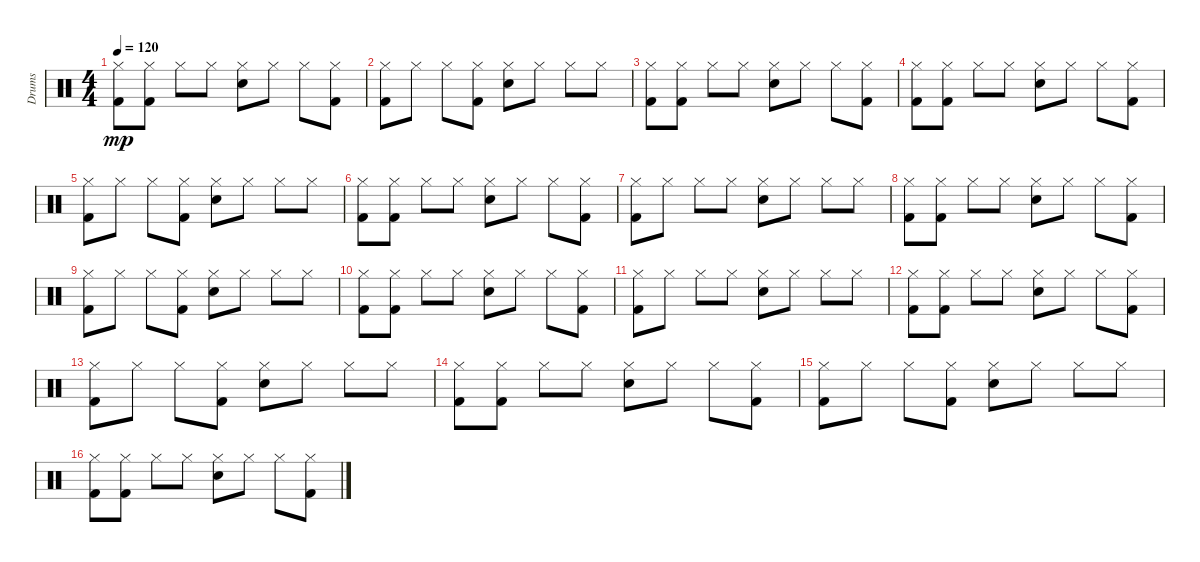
\track ("Drums" "Drums") {instrument percussion}
\staff {score}
\articulation defaults
\ts (4 4)
\tempo 120
\clef neutral
\ks c
("Hi-Hat (closed)" "Kick (hit) 2").8{dy mp} ("Hi-Hat (closed)" "Kick (hit) 2").8 "Hi-Hat (closed)".8 "Hi-Hat (closed)".8 ("Hi-Hat (closed)" "Snare (hit) 2").8 "Hi-Hat (closed)".8 "Hi-Hat (closed)".8 ("Hi-Hat (closed)" "Kick (hit) 2").8 |
("Hi-Hat (closed)" "Kick (hit) 2").8 "Hi-Hat (closed)".8 "Hi-Hat (closed)".8 ("Hi-Hat (closed)" "Kick (hit) 2").8 ("Hi-Hat (closed)" "Snare (hit) 2").8 "Hi-Hat (closed)".8 "Hi-Hat (closed)".8 "Hi-Hat (closed)".8 |
("Hi-Hat (closed)" "Kick (hit) 2").8 ("Hi-Hat (closed)" "Kick (hit) 2").8 "Hi-Hat (closed)".8 "Hi-Hat (closed)".8 ("Hi-Hat (closed)" "Snare (hit) 2").8 "Hi-Hat (closed)".8 "Hi-Hat (closed)".8 ("Hi-Hat (closed)" "Kick (hit) 2").8 |
("Hi-Hat (closed)" "Kick (hit) 2").8 ("Hi-Hat (closed)" "Kick (hit) 2").8 "Hi-Hat (closed)".8 "Hi-Hat (closed)".8 ("Hi-Hat (closed)" "Snare (hit) 2").8 "Hi-Hat (closed)".8 "Hi-Hat (closed)".8 ("Hi-Hat (closed)" "Kick (hit) 2").8 |
("Hi-Hat (closed)" "Kick (hit) 2").8 "Hi-Hat (closed)".8 "Hi-Hat (closed)".8 ("Hi-Hat (closed)" "Kick (hit) 2").8 ("Hi-Hat (closed)" "Snare (hit) 2").8 "Hi-Hat (closed)".8 "Hi-Hat (closed)".8 "Hi-Hat (closed)".8 |
("Hi-Hat (closed)" "Kick (hit) 2").8 ("Hi-Hat (closed)" "Kick (hit) 2").8 "Hi-Hat (closed)".8 "Hi-Hat (closed)".8 ("Hi-Hat (closed)" "Snare (hit) 2").8 "Hi-Hat (closed)".8 "Hi-Hat (closed)".8 ("Hi-Hat (closed)" "Kick (hit) 2").8 |
("Hi-Hat (closed)" "Kick (hit) 2").8 "Hi-Hat (closed)".8 "Hi-Hat (closed)".8 "Hi-Hat (closed)".8 ("Hi-Hat (closed)" "Snare (hit) 2").8 "Hi-Hat (closed)".8 "Hi-Hat (closed)".8 "Hi-Hat (closed)".8 |
("Hi-Hat (closed)" "Kick (hit) 2").8 ("Hi-Hat (closed)" "Kick (hit) 2").8 "Hi-Hat (closed)".8 "Hi-Hat (closed)".8 ("Hi-Hat (closed)" "Snare (hit) 2").8 "Hi-Hat (closed)".8 "Hi-Hat (closed)".8 ("Hi-Hat (closed)" "Kick (hit) 2").8 |
("Hi-Hat (closed)" "Kick (hit) 2").8 "Hi-Hat (closed)".8 "Hi-Hat (closed)".8 ("Hi-Hat (closed)" "Kick (hit) 2").8 ("Hi-Hat (closed)" "Snare (hit) 2").8 "Hi-Hat (closed)".8 "Hi-Hat (closed)".8 "Hi-Hat (closed)".8 |
("Hi-Hat (closed)" "Kick (hit) 2").8 ("Hi-Hat (closed)" "Kick (hit) 2").8 "Hi-Hat (closed)".8 "Hi-Hat (closed)".8 ("Hi-Hat (closed)" "Snare (hit) 2").8 "Hi-Hat (closed)".8 "Hi-Hat (closed)".8 ("Hi-Hat (closed)" "Kick (hit) 2").8 |
("Hi-Hat (closed)" "Kick (hit) 2").8 "Hi-Hat (closed)".8 "Hi-Hat (closed)".8 "Hi-Hat (closed)".8 ("Hi-Hat (closed)" "Snare (hit) 2").8 "Hi-Hat (closed)".8 "Hi-Hat (closed)".8 "Hi-Hat (closed)".8 |
("Hi-Hat (closed)" "Kick (hit) 2").8 ("Hi-Hat (closed)" "Kick (hit) 2").8 "Hi-Hat (closed)".8 "Hi-Hat (closed)".8 ("Hi-Hat (closed)" "Snare (hit) 2").8 "Hi-Hat (closed)".8 "Hi-Hat (closed)".8 ("Hi-Hat (closed)" "Kick (hit) 2").8 |
("Hi-Hat (closed)" "Kick (hit) 2").8 "Hi-Hat (closed)".8 "Hi-Hat (closed)".8 ("Hi-Hat (closed)" "Kick (hit) 2").8 ("Hi-Hat (closed)" "Snare (hit) 2").8 "Hi-Hat (closed)".8 "Hi-Hat (closed)".8 "Hi-Hat (closed)".8 |
("Hi-Hat (closed)" "Kick (hit) 2").8 ("Hi-Hat (closed)" "Kick (hit) 2").8 "Hi-Hat (closed)".8 "Hi-Hat (closed)".8 ("Hi-Hat (closed)" "Snare (hit) 2").8 "Hi-Hat (closed)".8 "Hi-Hat (closed)".8 ("Hi-Hat (closed)" "Kick (hit) 2").8 |
("Hi-Hat (closed)" "Kick (hit) 2").8 "Hi-Hat (closed)".8 "Hi-Hat (closed)".8 ("Hi-Hat (closed)" "Kick (hit) 2").8 ("Hi-Hat (closed)" "Snare (hit) 2").8 "Hi-Hat (closed)".8 "Hi-Hat (closed)".8 "Hi-Hat (closed)".8 |
("Hi-Hat (closed)" "Kick (hit) 2").8 ("Hi-Hat (closed)" "Kick (hit) 2").8 "Hi-Hat (closed)".8 "Hi-Hat (closed)".8 ("Hi-Hat (closed)" "Snare (hit) 2").8 "Hi-Hat (closed)".8 "Hi-Hat (closed)".8 ("Hi-Hat (closed)" "Kick (hit) 2").8
